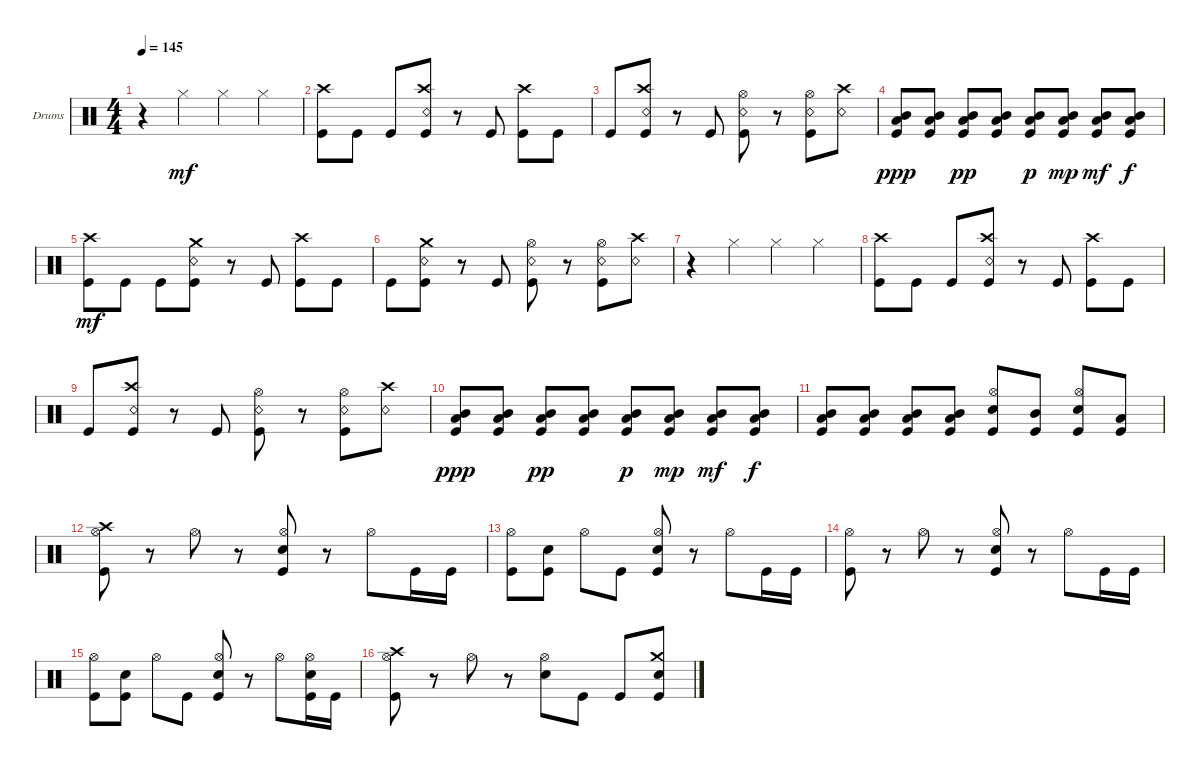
\bracketExtendMode groupsimilarinstruments
\firstSystemTrackNameOrientation horizontal
\otherSystemsTrackNameOrientation horizontal
\track ("Kaleb - Drums" "Drums") {instrument percussion}
\staff {score}
\articulation defaults
\ts (4 4)
\tempo 145
\clef neutral
\ks c
r.4{dy mf} "Hi-Hat (closed)".4 "Hi-Hat (closed)".4 "Hi-Hat (closed)".4 |
("Kick (hit)" "Crash high (hit)").8 "Kick (hit)".8 "Kick (hit)".8 ("Kick (hit)" "Snare (rim shot)" "Crash high (hit)").8 r.8 "Kick (hit)".8 ("Kick (hit)" "Crash high (hit)").8 "Kick (hit)".8 |
"Kick (hit)".8 ("Kick (hit)" "Snare (rim shot)" "Crash high (hit)").8 r.8 "Kick (hit)".8 ("Kick (hit)" "Snare (rim shot)" "Hi-Hat (open)").8 r.8 ("Kick (hit)" "Snare (rim shot)" "Hi-Hat (open)").8 ("Crash high (hit)" "Snare (rim shot)").8 |
("Kick (hit)" "Low Tom (hit)" "Mid Tom (hit)").8{dy ppp} ("Kick (hit)" "Low Tom (hit)" "Mid Tom (hit)").8 ("Kick (hit)" "Low Tom (hit)" "Mid Tom (hit)").8{dy pp} ("Kick (hit)" "Low Tom (hit)" "Mid Tom (hit)").8 ("Kick (hit)" "Low Tom (hit)" "Mid Tom (hit)").8{dy p} ("Kick (hit)" "Low Tom (hit)" "Mid Tom (hit)").8{dy mp} ("Kick (hit)" "Low Tom (hit)" "Mid Tom (hit)").8{dy mf} ("Kick (hit)" "Low Tom (hit)" "Mid Tom (hit)").8{dy f} |
("Kick (hit)" "Crash high (hit)").8{dy mf} "Kick (hit)".8 "Kick (hit)".8 ("Kick (hit)" "Snare (rim shot)" "Crash medium (hit)").8 r.8 "Kick (hit)".8 ("Kick (hit)" "Crash high (hit)").8 "Kick (hit)".8 |
"Kick (hit)".8 ("Kick (hit)" "Snare (rim shot)" "Crash medium (hit)").8 r.8 "Kick (hit)".8 ("Kick (hit)" "Snare (rim shot)" "Hi-Hat (open)").8 r.8 ("Kick (hit)" "Snare (rim shot)" "Hi-Hat (open)").8 ("Crash high (hit)" "Snare (rim shot)").8 |
r.4 "Hi-Hat (closed)".4 "Hi-Hat (closed)".4 "Hi-Hat (closed)".4 |
("Kick (hit)" "Crash high (hit)").8 "Kick (hit)".8 "Kick (hit)".8 ("Kick (hit)" "Snare (rim shot)" "Crash high (hit)").8 r.8 "Kick (hit)".8 ("Kick (hit)" "Crash high (hit)").8 "Kick (hit)".8 |
"Kick (hit)".8 ("Kick (hit)" "Snare (rim shot)" "Crash high (hit)").8 r.8 "Kick (hit)".8 ("Kick (hit)" "Snare (rim shot)" "Hi-Hat (open)").8 r.8 ("Kick (hit)" "Snare (rim shot)" "Hi-Hat (open)").8 ("Crash high (hit)" "Snare (rim shot)").8 |
("Kick (hit)" "Low Tom (hit)" "Mid Tom (hit)").8{dy ppp} ("Kick (hit)" "Low Tom (hit)" "Mid Tom (hit)").8 ("Kick (hit)" "Low Tom (hit)" "Mid Tom (hit)").8{dy pp} ("Kick (hit)" "Low Tom (hit)" "Mid Tom (hit)").8 ("Kick (hit)" "Low Tom (hit)" "Mid Tom (hit)").8{dy p} ("Kick (hit)" "Low Tom (hit)" "Mid Tom (hit)").8{dy mp} ("Kick (hit)" "Low Tom (hit)" "Mid Tom (hit)").8{dy mf} ("Kick (hit)" "Low Tom (hit)" "Mid Tom (hit)").8{dy f} |
("Kick (hit)" "Low Tom (hit)" "Mid Tom (hit)").8 ("Kick (hit)" "Low Tom (hit)" "Mid Tom (hit)").8 ("Kick (hit)" "Low Tom (hit)" "Mid Tom (hit)").8 ("Kick (hit)" "Low Tom (hit)" "Mid Tom (hit)").8 ("Kick (hit)" "Hi-Hat (open)" "Snare (hit) 2").8 ("Kick (hit)" "Mid Tom (hit)").8 ("Kick (hit)" "Hi-Hat (open)" "Snare (hit) 2").8 ("Kick (hit)" "Low Tom (hit)").8 |
("Kick (hit)" "Hi-Hat (open)" "Crash high (hit)").8 r.8 "Hi-Hat (open)".8 r.8 ("Kick (hit)" "Hi-Hat (open)" "Snare (hit) 2").8 r.8 "Hi-Hat (open)".8 "Kick (hit)".16 "Kick (hit)".16 |
("Kick (hit)" "Hi-Hat (open)").8 ("Kick (hit)" "Snare (hit) 2").8 "Hi-Hat (open)".8 "Kick (hit)".8 ("Kick (hit)" "Hi-Hat (open)" "Snare (hit) 2").8 r.8 "Hi-Hat (open)".8 "Kick (hit)".16 "Kick (hit)".16 |
("Kick (hit)" "Hi-Hat (open)").8 r.8 "Hi-Hat (open)".8 r.8 ("Kick (hit)" "Hi-Hat (open)" "Snare (hit) 2").8 r.8 "Hi-Hat (open)".8 "Kick (hit)".16 "Kick (hit)".16 |
("Kick (hit)" "Hi-Hat (open)").8 ("Kick (hit)" "Snare (hit) 2").8 "Hi-Hat (open)".8 "Kick (hit)".8 ("Kick (hit)" "Hi-Hat (open)" "Snare (hit) 2").8 r.8 "Hi-Hat (open)".8 ("Kick (hit)" "Hi-Hat (open)" "Snare (hit) 2").16 "Kick (hit)".16 |
("Kick (hit)" "Hi-Hat (open)" "Crash high (hit)").8 r.8 "Hi-Hat (open)".8 r.8 ("Snare (hit) 2" "Hi-Hat (open)").8 "Kick (hit)".8 "Kick (hit)".8 ("Snare (hit) 2" "Kick (hit)" "Crash medium (hit)").8
